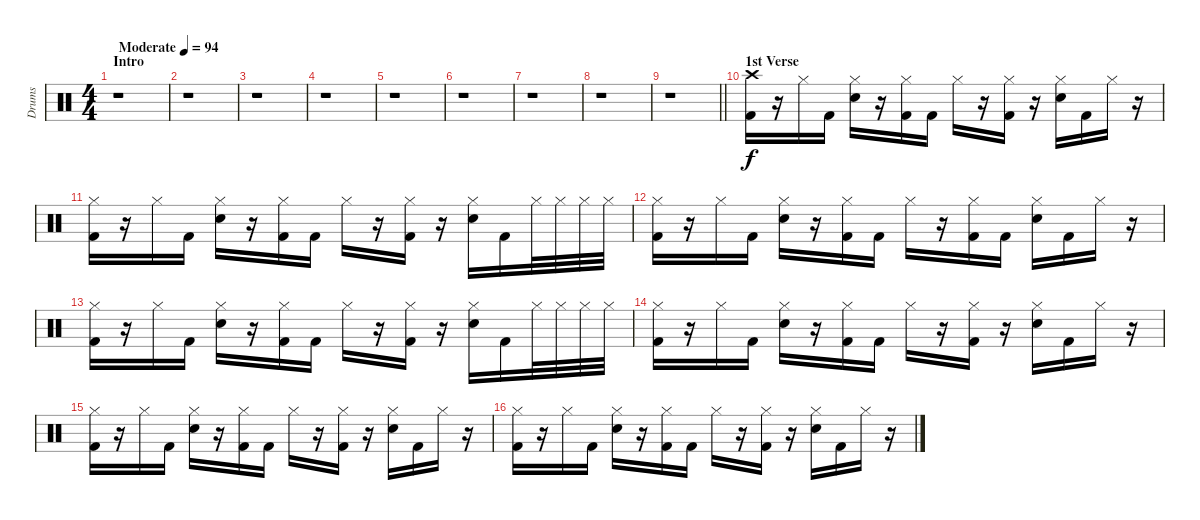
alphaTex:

\track ("Drums" "Drums") {instrument percussion}
\staff {score}
\articulation defaults
\ts (4 4)
\section ("" "Intro")
\tempo (94 "Moderate")
\clef neutral
\ks c
r.1{dy f} |
r.1 |
r.1 |
r.1 |
r.1 |
r.1 |
r.1 |
r.1 |
\barLineRight lightlight
r.1 |
\section ("" "1st Verse")
("Kick (hit) 2" "Crash high (hit)").16 r.16 "Hi-Hat (closed)".16 "Kick (hit) 2".16 ("Snare (hit) 2" "Hi-Hat (closed)").16 r.16 ("Kick (hit) 2" "Hi-Hat (closed)").16 "Kick (hit) 2".16 "Hi-Hat (closed)".16 r.16 ("Kick (hit) 2" "Hi-Hat (closed)").16 r.16 ("Snare (hit) 2" "Hi-Hat (closed)").16 "Kick (hit) 2".16 "Hi-Hat (closed)".16 r.16 |
("Kick (hit) 2" "Hi-Hat (closed)").16 r.16 "Hi-Hat (closed)".16 "Kick (hit) 2".16 ("Snare (hit) 2" "Hi-Hat (closed)").16 r.16 ("Kick (hit) 2" "Hi-Hat (closed)").16 "Kick (hit) 2".16 "Hi-Hat (closed)".16 r.16 ("Kick (hit) 2" "Hi-Hat (closed)").16 r.16 ("Snare (hit) 2" "Hi-Hat (closed)").16 "Kick (hit) 2".16 "Hi-Hat (closed)".32 "Hi-Hat (closed)".32 "Hi-Hat (closed)".32 "Hi-Hat (closed)".32 |
("Kick (hit) 2" "Hi-Hat (closed)").16 r.16 "Hi-Hat (closed)".16 "Kick (hit) 2".16 ("Snare (hit) 2" "Hi-Hat (closed)").16 r.16 ("Kick (hit) 2" "Hi-Hat (closed)").16 "Kick (hit) 2".16 "Hi-Hat (closed)".16 r.16 ("Kick (hit) 2" "Hi-Hat (closed)").16 "Kick (hit) 2".16 ("Snare (hit) 2" "Hi-Hat (closed)").16 "Kick (hit) 2".16 "Hi-Hat (closed)".16 r.16 |
("Kick (hit) 2" "Hi-Hat (closed)").16 r.16 "Hi-Hat (closed)".16 "Kick (hit) 2".16 ("Snare (hit) 2" "Hi-Hat (closed)").16 r.16 ("Kick (hit) 2" "Hi-Hat (closed)").16 "Kick (hit) 2".16 "Hi-Hat (closed)".16 r.16 ("Kick (hit) 2" "Hi-Hat (closed)").16 r.16 ("Snare (hit) 2" "Hi-Hat (closed)").16 "Kick (hit) 2".16 "Hi-Hat (closed)".32 "Hi-Hat (closed)".32 "Hi-Hat (closed)".32 "Hi-Hat (closed)".32 |
("Kick (hit) 2" "Hi-Hat (closed)").16 r.16 "Hi-Hat (closed)".16 "Kick (hit) 2".16 ("Snare (hit) 2" "Hi-Hat (closed)").16 r.16 ("Kick (hit) 2" "Hi-Hat (closed)").16 "Kick (hit) 2".16 "Hi-Hat (closed)".16 r.16 ("Kick (hit) 2" "Hi-Hat (closed)").16 r.16 ("Snare (hit) 2" "Hi-Hat (closed)").16 "Kick (hit) 2".16 "Hi-Hat (closed)".16 r.16 |
("Kick (hit) 2" "Hi-Hat (closed)").16 r.16 "Hi-Hat (closed)".16 "Kick (hit) 2".16 ("Snare (hit) 2" "Hi-Hat (closed)").16 r.16 ("Kick (hit) 2" "Hi-Hat (closed)").16 "Kick (hit) 2".16 "Hi-Hat (closed)".16 r.16 ("Kick (hit) 2" "Hi-Hat (closed)").16 r.16 ("Snare (hit) 2" "Hi-Hat (closed)").16 "Kick (hit) 2".16 "Hi-Hat (closed)".16 r.16 |
("Kick (hit) 2" "Hi-Hat (closed)").16 r.16 "Hi-Hat (closed)".16 "Kick (hit) 2".16 ("Snare (hit) 2" "Hi-Hat (closed)").16 r.16 ("Kick (hit) 2" "Hi-Hat (closed)").16 "Kick (hit) 2".16 "Hi-Hat (closed)".16 r.16 ("Kick (hit) 2" "Hi-Hat (closed)").16 r.16 ("Snare (hit) 2" "Hi-Hat (closed)").16 "Kick (hit) 2".16 "Hi-Hat (closed)".16 r.16
